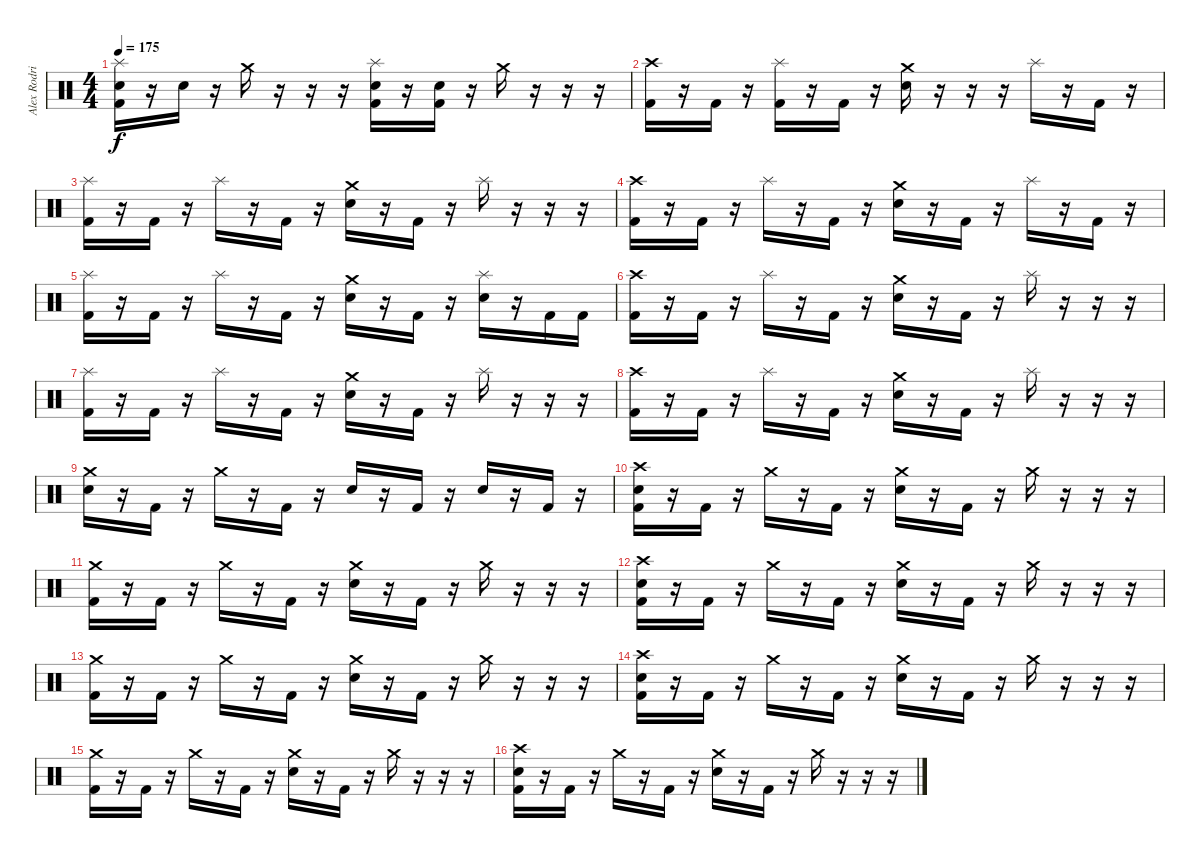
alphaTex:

\track ("Alex Rodriguez" "Alex Rodri") {instrument percussion}
\staff {score}
\articulation defaults
\ts (4 4)
\tempo 175
\clef neutral
\ks c
("Splash (hit)" "Electric Snare (hit)" "Kick (hit) 2").16{dy f} r.16 "Electric Snare (hit)".16 r.16 "Crash medium (hit)".16 r.16 r.16 r.16 ("Splash (hit)" "Electric Snare (hit)" "Kick (hit) 2").16 r.16 ("Electric Snare (hit)" "Kick (hit) 2").16 r.16 "Crash medium (hit)".16 r.16 r.16 r.16 |
("Crash high (hit)" "Kick (hit) 2").16 r.16 "Kick (hit) 2".16 r.16 ("Splash (hit)" "Kick (hit) 2").16 r.16 "Kick (hit) 2".16 r.16 ("Crash medium (hit)" "Electric Snare (hit)").16 r.16 r.16 r.16 "Splash (hit)".16 r.16 "Kick (hit) 2".16 r.16 |
("Splash (hit)" "Kick (hit) 2").16 r.16 "Kick (hit) 2".16 r.16 "Splash (hit)".16 r.16 "Kick (hit) 2".16 r.16 ("Crash medium (hit)" "Electric Snare (hit)").16 r.16 "Kick (hit) 2".16 r.16 "Splash (hit)".16 r.16 r.16 r.16 |
("Crash high (hit)" "Kick (hit) 2").16 r.16 "Kick (hit) 2".16 r.16 "Splash (hit)".16 r.16 "Kick (hit) 2".16 r.16 ("Crash medium (hit)" "Electric Snare (hit)").16 r.16 "Kick (hit) 2".16 r.16 "Splash (hit)".16 r.16 "Kick (hit) 2".16 r.16 |
("Splash (hit)" "Kick (hit) 2").16 r.16 "Kick (hit) 2".16 r.16 "Splash (hit)".16 r.16 "Kick (hit) 2".16 r.16 ("Crash medium (hit)" "Electric Snare (hit)").16 r.16 "Kick (hit) 2".16 r.16 ("Splash (hit)" "Electric Snare (hit)").16 r.16 "Kick (hit) 2".16 "Kick (hit) 2".16 |
("Crash high (hit)" "Kick (hit) 2").16 r.16 "Kick (hit) 2".16 r.16 "Splash (hit)".16 r.16 "Kick (hit) 2".16 r.16 ("Crash medium (hit)" "Electric Snare (hit)").16 r.16 "Kick (hit) 2".16 r.16 "Splash (hit)".16 r.16 r.16 r.16 |
("Splash (hit)" "Kick (hit) 2").16 r.16 "Kick (hit) 2".16 r.16 "Splash (hit)".16 r.16 "Kick (hit) 2".16 r.16 ("Crash medium (hit)" "Electric Snare (hit)").16 r.16 "Kick (hit) 2".16 r.16 "Splash (hit)".16 r.16 r.16 r.16 |
("Crash high (hit)" "Kick (hit) 2").16 r.16 "Kick (hit) 2".16 r.16 "Splash (hit)".16 r.16 "Kick (hit) 2".16 r.16 ("Crash medium (hit)" "Electric Snare (hit)").16 r.16 "Kick (hit) 2".16 r.16 "Splash (hit)".16 r.16 r.16 r.16 |
("Crash medium (hit)" "Electric Snare (hit)").16 r.16 "Kick (hit) 2".16 r.16 "Crash medium (hit)".16 r.16 "Kick (hit) 2".16 r.16 "Electric Snare (hit)".16 r.16 "Kick (hit) 2".16 r.16 "Electric Snare (hit)".16 r.16 "Kick (hit) 2".16 r.16 |
("Crash high (hit)" "Electric Snare (hit)" "Kick (hit) 2").16 r.16 "Kick (hit) 2".16 r.16 "Crash medium (hit)".16 r.16 "Kick (hit) 2".16 r.16 ("Crash medium (hit)" "Electric Snare (hit)").16 r.16 "Kick (hit) 2".16 r.16 "Crash medium (hit)".16 r.16 r.16 r.16 |
("Crash medium (hit)" "Kick (hit) 2").16 r.16 "Kick (hit) 2".16 r.16 "Crash medium (hit)".16 r.16 "Kick (hit) 2".16 r.16 ("Crash medium (hit)" "Electric Snare (hit)").16 r.16 "Kick (hit) 2".16 r.16 "Crash medium (hit)".16 r.16 r.16 r.16 |
("Crash high (hit)" "Electric Snare (hit)" "Kick (hit) 2").16 r.16 "Kick (hit) 2".16 r.16 "Crash medium (hit)".16 r.16 "Kick (hit) 2".16 r.16 ("Crash medium (hit)" "Electric Snare (hit)").16 r.16 "Kick (hit) 2".16 r.16 "Crash medium (hit)".16 r.16 r.16 r.16 |
("Crash medium (hit)" "Kick (hit) 2").16 r.16 "Kick (hit) 2".16 r.16 "Crash medium (hit)".16 r.16 "Kick (hit) 2".16 r.16 ("Crash medium (hit)" "Electric Snare (hit)").16 r.16 "Kick (hit) 2".16 r.16 "Crash medium (hit)".16 r.16 r.16 r.16 |
("Crash high (hit)" "Electric Snare (hit)" "Kick (hit) 2").16 r.16 "Kick (hit) 2".16 r.16 "Crash medium (hit)".16 r.16 "Kick (hit) 2".16 r.16 ("Crash medium (hit)" "Electric Snare (hit)").16 r.16 "Kick (hit) 2".16 r.16 "Crash medium (hit)".16 r.16 r.16 r.16 |
("Crash medium (hit)" "Kick (hit) 2").16 r.16 "Kick (hit) 2".16 r.16 "Crash medium (hit)".16 r.16 "Kick (hit) 2".16 r.16 ("Crash medium (hit)" "Electric Snare (hit)").16 r.16 "Kick (hit) 2".16 r.16 "Crash medium (hit)".16 r.16 r.16 r.16 |
("Crash high (hit)" "Electric Snare (hit)" "Kick (hit) 2").16 r.16 "Kick (hit) 2".16 r.16 "Crash medium (hit)".16 r.16 "Kick (hit) 2".16 r.16 ("Crash medium (hit)" "Electric Snare (hit)").16 r.16 "Kick (hit) 2".16 r.16 "Crash medium (hit)".16 r.16 r.16 r.16
